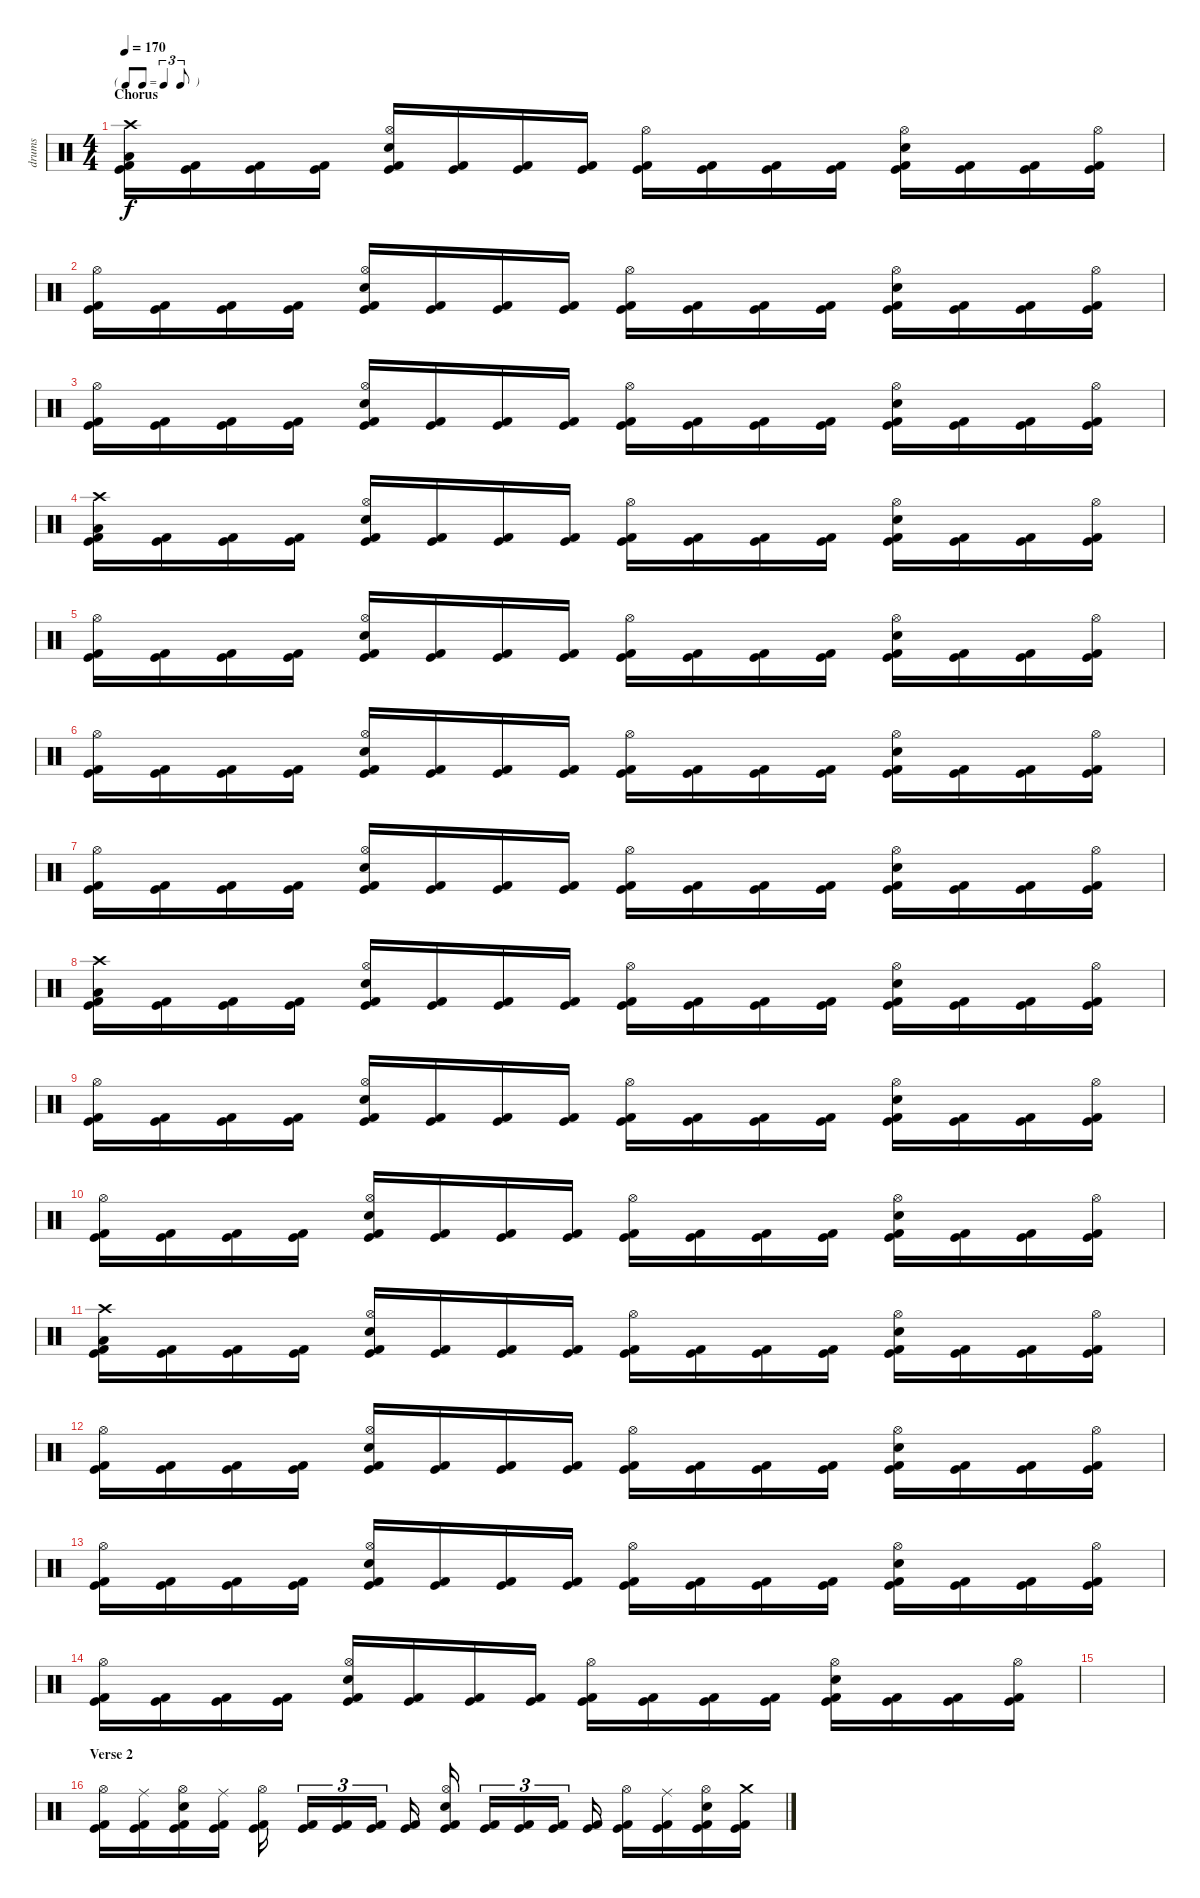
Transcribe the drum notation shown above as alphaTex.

\track ("drums" "drums") {instrument percussion}
\staff {score}
\articulation defaults
\ts (4 4)
\tf triplet8th
\section ("" "Chorus")
\tempo 170
\clef neutral
\ks c
("Crash high (hit)" "Low Floor Tom (hit)" "Kick (hit)" "Kick (hit) 2").16{dy f} ("Kick (hit)" "Kick (hit) 2").16 ("Kick (hit)" "Kick (hit) 2").16 ("Kick (hit)" "Kick (hit) 2").16 ("Hi-Hat (open)" "Snare (hit) 2" "Kick (hit)" "Kick (hit) 2").16 ("Kick (hit)" "Kick (hit) 2").16 ("Kick (hit)" "Kick (hit) 2").16 ("Kick (hit)" "Kick (hit) 2").16 ("Hi-Hat (open)" "Kick (hit)" "Kick (hit) 2").16 ("Kick (hit)" "Kick (hit) 2").16 ("Kick (hit)" "Kick (hit) 2").16 ("Kick (hit)" "Kick (hit) 2").16 ("Hi-Hat (open)" "Snare (hit) 2" "Kick (hit)" "Kick (hit) 2").16 ("Kick (hit)" "Kick (hit) 2").16 ("Kick (hit)" "Kick (hit) 2").16 ("Hi-Hat (open)" "Kick (hit)" "Kick (hit) 2").16 |
("Hi-Hat (open)" "Kick (hit)" "Kick (hit) 2").16 ("Kick (hit)" "Kick (hit) 2").16 ("Kick (hit)" "Kick (hit) 2").16 ("Kick (hit)" "Kick (hit) 2").16 ("Hi-Hat (open)" "Snare (hit) 2" "Kick (hit)" "Kick (hit) 2").16 ("Kick (hit)" "Kick (hit) 2").16 ("Kick (hit)" "Kick (hit) 2").16 ("Kick (hit)" "Kick (hit) 2").16 ("Hi-Hat (open)" "Kick (hit)" "Kick (hit) 2").16 ("Kick (hit)" "Kick (hit) 2").16 ("Kick (hit)" "Kick (hit) 2").16 ("Kick (hit)" "Kick (hit) 2").16 ("Hi-Hat (open)" "Snare (hit) 2" "Kick (hit)" "Kick (hit) 2").16 ("Kick (hit)" "Kick (hit) 2").16 ("Kick (hit)" "Kick (hit) 2").16 ("Hi-Hat (open)" "Kick (hit)" "Kick (hit) 2").16 |
("Hi-Hat (open)" "Kick (hit)" "Kick (hit) 2").16 ("Kick (hit)" "Kick (hit) 2").16 ("Kick (hit)" "Kick (hit) 2").16 ("Kick (hit)" "Kick (hit) 2").16 ("Hi-Hat (open)" "Snare (hit) 2" "Kick (hit)" "Kick (hit) 2").16 ("Kick (hit)" "Kick (hit) 2").16 ("Kick (hit)" "Kick (hit) 2").16 ("Kick (hit)" "Kick (hit) 2").16 ("Hi-Hat (open)" "Kick (hit)" "Kick (hit) 2").16 ("Kick (hit)" "Kick (hit) 2").16 ("Kick (hit)" "Kick (hit) 2").16 ("Kick (hit)" "Kick (hit) 2").16 ("Hi-Hat (open)" "Snare (hit) 2" "Kick (hit)" "Kick (hit) 2").16 ("Kick (hit)" "Kick (hit) 2").16 ("Kick (hit)" "Kick (hit) 2").16 ("Hi-Hat (open)" "Kick (hit)" "Kick (hit) 2").16 |
("Crash high (hit)" "Low Floor Tom (hit)" "Kick (hit)" "Kick (hit) 2").16 ("Kick (hit)" "Kick (hit) 2").16 ("Kick (hit)" "Kick (hit) 2").16 ("Kick (hit)" "Kick (hit) 2").16 ("Hi-Hat (open)" "Snare (hit) 2" "Kick (hit)" "Kick (hit) 2").16 ("Kick (hit)" "Kick (hit) 2").16 ("Kick (hit)" "Kick (hit) 2").16 ("Kick (hit)" "Kick (hit) 2").16 ("Hi-Hat (open)" "Kick (hit)" "Kick (hit) 2").16 ("Kick (hit)" "Kick (hit) 2").16 ("Kick (hit)" "Kick (hit) 2").16 ("Kick (hit)" "Kick (hit) 2").16 ("Hi-Hat (open)" "Snare (hit) 2" "Kick (hit)" "Kick (hit) 2").16 ("Kick (hit)" "Kick (hit) 2").16 ("Kick (hit)" "Kick (hit) 2").16 ("Hi-Hat (open)" "Kick (hit)" "Kick (hit) 2").16 |
("Hi-Hat (open)" "Kick (hit)" "Kick (hit) 2").16 ("Kick (hit)" "Kick (hit) 2").16 ("Kick (hit)" "Kick (hit) 2").16 ("Kick (hit)" "Kick (hit) 2").16 ("Hi-Hat (open)" "Snare (hit) 2" "Kick (hit)" "Kick (hit) 2").16 ("Kick (hit)" "Kick (hit) 2").16 ("Kick (hit)" "Kick (hit) 2").16 ("Kick (hit)" "Kick (hit) 2").16 ("Hi-Hat (open)" "Kick (hit)" "Kick (hit) 2").16 ("Kick (hit)" "Kick (hit) 2").16 ("Kick (hit)" "Kick (hit) 2").16 ("Kick (hit)" "Kick (hit) 2").16 ("Hi-Hat (open)" "Snare (hit) 2" "Kick (hit)" "Kick (hit) 2").16 ("Kick (hit)" "Kick (hit) 2").16 ("Kick (hit)" "Kick (hit) 2").16 ("Hi-Hat (open)" "Kick (hit)" "Kick (hit) 2").16 |
("Hi-Hat (open)" "Kick (hit)" "Kick (hit) 2").16 ("Kick (hit)" "Kick (hit) 2").16 ("Kick (hit)" "Kick (hit) 2").16 ("Kick (hit)" "Kick (hit) 2").16 ("Hi-Hat (open)" "Snare (hit) 2" "Kick (hit)" "Kick (hit) 2").16 ("Kick (hit)" "Kick (hit) 2").16 ("Kick (hit)" "Kick (hit) 2").16 ("Kick (hit)" "Kick (hit) 2").16 ("Hi-Hat (open)" "Kick (hit)" "Kick (hit) 2").16 ("Kick (hit)" "Kick (hit) 2").16 ("Kick (hit)" "Kick (hit) 2").16 ("Kick (hit)" "Kick (hit) 2").16 ("Hi-Hat (open)" "Snare (hit) 2" "Kick (hit)" "Kick (hit) 2").16 ("Kick (hit)" "Kick (hit) 2").16 ("Kick (hit)" "Kick (hit) 2").16 ("Hi-Hat (open)" "Kick (hit)" "Kick (hit) 2").16 |
("Hi-Hat (open)" "Kick (hit)" "Kick (hit) 2").16 ("Kick (hit)" "Kick (hit) 2").16 ("Kick (hit)" "Kick (hit) 2").16 ("Kick (hit)" "Kick (hit) 2").16 ("Hi-Hat (open)" "Snare (hit) 2" "Kick (hit)" "Kick (hit) 2").16 ("Kick (hit)" "Kick (hit) 2").16 ("Kick (hit)" "Kick (hit) 2").16 ("Kick (hit)" "Kick (hit) 2").16 ("Hi-Hat (open)" "Kick (hit)" "Kick (hit) 2").16 ("Kick (hit)" "Kick (hit) 2").16 ("Kick (hit)" "Kick (hit) 2").16 ("Kick (hit)" "Kick (hit) 2").16 ("Hi-Hat (open)" "Snare (hit) 2" "Kick (hit)" "Kick (hit) 2").16 ("Kick (hit)" "Kick (hit) 2").16 ("Kick (hit)" "Kick (hit) 2").16 ("Hi-Hat (open)" "Kick (hit)" "Kick (hit) 2").16 |
("Crash high (hit)" "Low Floor Tom (hit)" "Kick (hit)" "Kick (hit) 2").16 ("Kick (hit)" "Kick (hit) 2").16 ("Kick (hit)" "Kick (hit) 2").16 ("Kick (hit)" "Kick (hit) 2").16 ("Hi-Hat (open)" "Snare (hit) 2" "Kick (hit)" "Kick (hit) 2").16 ("Kick (hit)" "Kick (hit) 2").16 ("Kick (hit)" "Kick (hit) 2").16 ("Kick (hit)" "Kick (hit) 2").16 ("Hi-Hat (open)" "Kick (hit)" "Kick (hit) 2").16 ("Kick (hit)" "Kick (hit) 2").16 ("Kick (hit)" "Kick (hit) 2").16 ("Kick (hit)" "Kick (hit) 2").16 ("Hi-Hat (open)" "Snare (hit) 2" "Kick (hit)" "Kick (hit) 2").16 ("Kick (hit)" "Kick (hit) 2").16 ("Kick (hit)" "Kick (hit) 2").16 ("Hi-Hat (open)" "Kick (hit)" "Kick (hit) 2").16 |
("Hi-Hat (open)" "Kick (hit)" "Kick (hit) 2").16 ("Kick (hit)" "Kick (hit) 2").16 ("Kick (hit)" "Kick (hit) 2").16 ("Kick (hit)" "Kick (hit) 2").16 ("Hi-Hat (open)" "Snare (hit) 2" "Kick (hit)" "Kick (hit) 2").16 ("Kick (hit)" "Kick (hit) 2").16 ("Kick (hit)" "Kick (hit) 2").16 ("Kick (hit)" "Kick (hit) 2").16 ("Hi-Hat (open)" "Kick (hit)" "Kick (hit) 2").16 ("Kick (hit)" "Kick (hit) 2").16 ("Kick (hit)" "Kick (hit) 2").16 ("Kick (hit)" "Kick (hit) 2").16 ("Hi-Hat (open)" "Snare (hit) 2" "Kick (hit)" "Kick (hit) 2").16 ("Kick (hit)" "Kick (hit) 2").16 ("Kick (hit)" "Kick (hit) 2").16 ("Hi-Hat (open)" "Kick (hit)" "Kick (hit) 2").16 |
("Hi-Hat (open)" "Kick (hit)" "Kick (hit) 2").16 ("Kick (hit)" "Kick (hit) 2").16 ("Kick (hit)" "Kick (hit) 2").16 ("Kick (hit)" "Kick (hit) 2").16 ("Hi-Hat (open)" "Snare (hit) 2" "Kick (hit)" "Kick (hit) 2").16 ("Kick (hit)" "Kick (hit) 2").16 ("Kick (hit)" "Kick (hit) 2").16 ("Kick (hit)" "Kick (hit) 2").16 ("Hi-Hat (open)" "Kick (hit)" "Kick (hit) 2").16 ("Kick (hit)" "Kick (hit) 2").16 ("Kick (hit)" "Kick (hit) 2").16 ("Kick (hit)" "Kick (hit) 2").16 ("Hi-Hat (open)" "Snare (hit) 2" "Kick (hit)" "Kick (hit) 2").16 ("Kick (hit)" "Kick (hit) 2").16 ("Kick (hit)" "Kick (hit) 2").16 ("Hi-Hat (open)" "Kick (hit)" "Kick (hit) 2").16 |
("Crash high (hit)" "Low Floor Tom (hit)" "Kick (hit)" "Kick (hit) 2").16 ("Kick (hit)" "Kick (hit) 2").16 ("Kick (hit)" "Kick (hit) 2").16 ("Kick (hit)" "Kick (hit) 2").16 ("Hi-Hat (open)" "Snare (hit) 2" "Kick (hit)" "Kick (hit) 2").16 ("Kick (hit)" "Kick (hit) 2").16 ("Kick (hit)" "Kick (hit) 2").16 ("Kick (hit)" "Kick (hit) 2").16 ("Hi-Hat (open)" "Kick (hit)" "Kick (hit) 2").16 ("Kick (hit)" "Kick (hit) 2").16 ("Kick (hit)" "Kick (hit) 2").16 ("Kick (hit)" "Kick (hit) 2").16 ("Hi-Hat (open)" "Snare (hit) 2" "Kick (hit)" "Kick (hit) 2").16 ("Kick (hit)" "Kick (hit) 2").16 ("Kick (hit)" "Kick (hit) 2").16 ("Hi-Hat (open)" "Kick (hit)" "Kick (hit) 2").16 |
("Hi-Hat (open)" "Kick (hit)" "Kick (hit) 2").16 ("Kick (hit)" "Kick (hit) 2").16 ("Kick (hit)" "Kick (hit) 2").16 ("Kick (hit)" "Kick (hit) 2").16 ("Hi-Hat (open)" "Snare (hit) 2" "Kick (hit)" "Kick (hit) 2").16 ("Kick (hit)" "Kick (hit) 2").16 ("Kick (hit)" "Kick (hit) 2").16 ("Kick (hit)" "Kick (hit) 2").16 ("Hi-Hat (open)" "Kick (hit)" "Kick (hit) 2").16 ("Kick (hit)" "Kick (hit) 2").16 ("Kick (hit)" "Kick (hit) 2").16 ("Kick (hit)" "Kick (hit) 2").16 ("Hi-Hat (open)" "Snare (hit) 2" "Kick (hit)" "Kick (hit) 2").16 ("Kick (hit)" "Kick (hit) 2").16 ("Kick (hit)" "Kick (hit) 2").16 ("Hi-Hat (open)" "Kick (hit)" "Kick (hit) 2").16 |
("Hi-Hat (open)" "Kick (hit)" "Kick (hit) 2").16 ("Kick (hit)" "Kick (hit) 2").16 ("Kick (hit)" "Kick (hit) 2").16 ("Kick (hit)" "Kick (hit) 2").16 ("Hi-Hat (open)" "Snare (hit) 2" "Kick (hit)" "Kick (hit) 2").16 ("Kick (hit)" "Kick (hit) 2").16 ("Kick (hit)" "Kick (hit) 2").16 ("Kick (hit)" "Kick (hit) 2").16 ("Hi-Hat (open)" "Kick (hit)" "Kick (hit) 2").16 ("Kick (hit)" "Kick (hit) 2").16 ("Kick (hit)" "Kick (hit) 2").16 ("Kick (hit)" "Kick (hit) 2").16 ("Hi-Hat (open)" "Snare (hit) 2" "Kick (hit)" "Kick (hit) 2").16 ("Kick (hit)" "Kick (hit) 2").16 ("Kick (hit)" "Kick (hit) 2").16 ("Hi-Hat (open)" "Kick (hit)" "Kick (hit) 2").16 |
("Hi-Hat (open)" "Kick (hit)" "Kick (hit) 2").16 ("Kick (hit)" "Kick (hit) 2").16 ("Kick (hit)" "Kick (hit) 2").16 ("Kick (hit)" "Kick (hit) 2").16 ("Hi-Hat (open)" "Snare (hit) 2" "Kick (hit)" "Kick (hit) 2").16 ("Kick (hit)" "Kick (hit) 2").16 ("Kick (hit)" "Kick (hit) 2").16 ("Kick (hit)" "Kick (hit) 2").16 ("Hi-Hat (open)" "Kick (hit)" "Kick (hit) 2").16 ("Kick (hit)" "Kick (hit) 2").16 ("Kick (hit)" "Kick (hit) 2").16 ("Kick (hit)" "Kick (hit) 2").16 ("Hi-Hat (open)" "Snare (hit) 2" "Kick (hit)" "Kick (hit) 2").16 ("Kick (hit)" "Kick (hit) 2").16 ("Kick (hit)" "Kick (hit) 2").16 ("Hi-Hat (open)" "Kick (hit)" "Kick (hit) 2").16 |
|
\section ("" "Verse 2")
("Hi-Hat (open)" "Kick (hit)" "Kick (hit) 2").16 ("Ride (middle)" "Kick (hit)" "Kick (hit) 2").16 ("Hi-Hat (open)" "Snare (hit) 2" "Kick (hit)" "Kick (hit) 2").16 ("Ride (middle)" "Kick (hit)" "Kick (hit) 2").16 ("Hi-Hat (open)" "Kick (hit)" "Kick (hit) 2").16 ("Kick (hit)" "Kick (hit) 2").16{tu (3 2)} ("Kick (hit)" "Kick (hit) 2").16{tu (3 2)} ("Kick (hit)" "Kick (hit) 2").16{tu (3 2)} ("Kick (hit)" "Kick (hit) 2").16 ("Hi-Hat (open)" "Snare (hit) 2" "Kick (hit)" "Kick (hit) 2").16 ("Kick (hit)" "Kick (hit) 2").16{tu (3 2)} ("Kick (hit)" "Kick (hit) 2").16{tu (3 2)} ("Kick (hit)" "Kick (hit) 2").16{tu (3 2)} ("Kick (hit)" "Kick (hit) 2").16 ("Hi-Hat (open)" "Kick (hit)" "Kick (hit) 2").16 ("Ride (middle)" "Kick (hit)" "Kick (hit) 2").16 ("Hi-Hat (open)" "Snare (hit) 2" "Kick (hit)" "Kick (hit) 2").16 ("Crash medium (hit)" "Kick (hit)" "Kick (hit) 2").16
